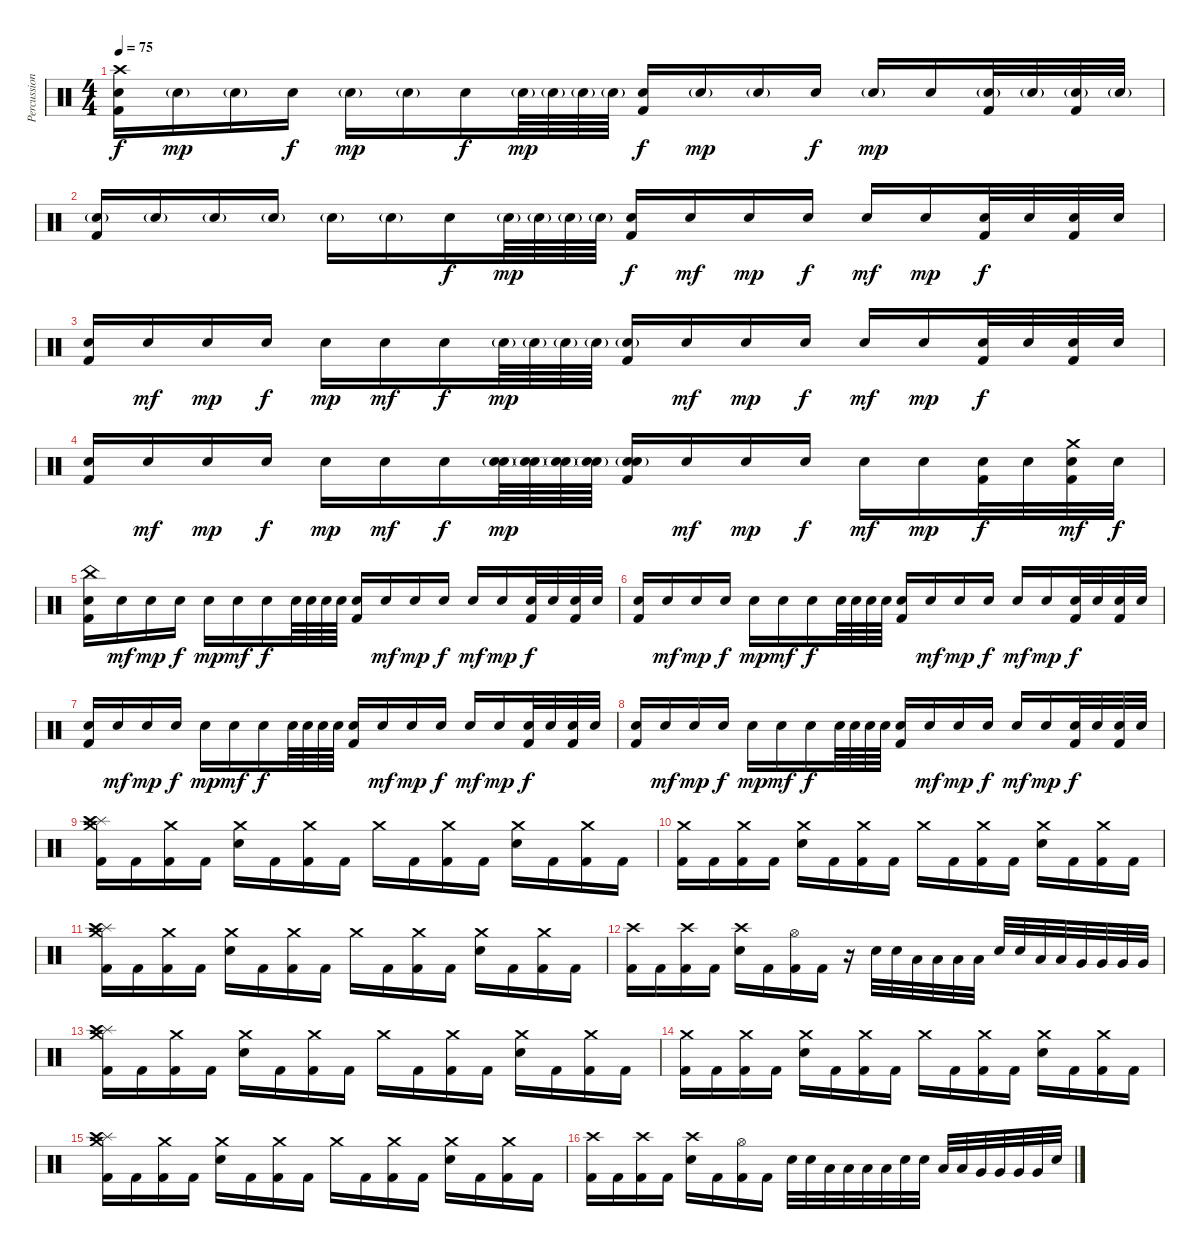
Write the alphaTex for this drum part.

\track ("Percussion" "Percussion") {instrument percussion}
\staff {score}
\articulation defaults
\ts (4 4)
\tempo 75
\clef neutral
\ks c
("Crash high (hit)" "Snare (hit) 2" "Kick (hit) 2").16{dy f} "Snare (hit) 2"{g}.16{dy mp} "Snare (hit) 2"{g}.16 "Snare (hit) 2".16{dy f} "Snare (hit) 2"{g}.16{dy mp} "Snare (hit) 2"{g}.16 "Snare (hit) 2".16{dy f} "Snare (hit) 2"{g}.64{dy mp} "Snare (hit) 2"{g}.64 "Snare (hit) 2"{g}.64 "Snare (hit) 2"{g}.64 ("Snare (hit) 2" "Kick (hit) 2").16{dy f} "Snare (hit) 2"{g}.16{dy mp} "Snare (hit) 2"{g}.16 "Snare (hit) 2".16{dy f} "Snare (hit) 2"{g}.16{dy mp} "Snare (hit) 2".16 ("Snare (hit) 2"{g} "Kick (hit) 2").32 "Snare (hit) 2"{g}.32 ("Snare (hit) 2"{g} "Kick (hit) 2").32 "Snare (hit) 2"{g}.32 |
("Snare (hit) 2"{g} "Kick (hit) 2").16 "Snare (hit) 2"{g}.16 "Snare (hit) 2"{g}.16 "Snare (hit) 2"{g}.16 "Snare (hit) 2"{g}.16 "Snare (hit) 2"{g}.16 "Snare (hit) 2".16{dy f} "Snare (hit) 2"{g}.64{dy mp} "Snare (hit) 2"{g}.64 "Snare (hit) 2"{g}.64 "Snare (hit) 2"{g}.64 ("Snare (hit) 2" "Kick (hit) 2").16{dy f} "Snare (hit) 2".16{dy mf} "Snare (hit) 2".16{dy mp} "Snare (hit) 2".16{dy f} "Snare (hit) 2".16{dy mf} "Snare (hit) 2".16{dy mp} ("Snare (hit) 2" "Kick (hit) 2").32{dy f} "Snare (hit) 2".32 ("Snare (hit) 2" "Kick (hit) 2").32 "Snare (hit) 2".32 |
("Snare (hit) 2" "Kick (hit) 2").16 "Snare (hit) 2".16{dy mf} "Snare (hit) 2".16{dy mp} "Snare (hit) 2".16{dy f} "Snare (hit) 2".16{dy mp} "Snare (hit) 2".16{dy mf} "Snare (hit) 2".16{dy f} "Snare (hit) 2"{g}.64{dy mp} "Snare (hit) 2"{g}.64 "Snare (hit) 2"{g}.64 "Snare (hit) 2"{g}.64 ("Snare (hit) 2"{g} "Kick (hit) 2").16 "Snare (hit) 2".16{dy mf} "Snare (hit) 2".16{dy mp} "Snare (hit) 2".16{dy f} "Snare (hit) 2".16{dy mf} "Snare (hit) 2".16{dy mp} ("Snare (hit) 2" "Kick (hit) 2").32{dy f} "Snare (hit) 2".32 ("Snare (hit) 2" "Kick (hit) 2").32 "Snare (hit) 2".32 |
("Snare (hit) 2" "Kick (hit) 2").16 "Snare (hit) 2".16{dy mf} "Snare (hit) 2".16{dy mp} "Snare (hit) 2".16{dy f} "Snare (hit) 2".16{dy mp} "Snare (hit) 2".16{dy mf} "Snare (hit) 2".16{dy f} ("Snare (hit) 2"{g} "Snare (hit) 2"{g}).64{dy mp} ("Snare (hit) 2"{g} "Snare (hit) 2"{g}).64 ("Snare (hit) 2"{g} "Snare (hit) 2"{g}).64 ("Snare (hit) 2"{g} "Snare (hit) 2"{g}).64 ("Snare (hit) 2"{g} "Snare (hit) 2"{g} "Kick (hit) 2").16 "Snare (hit) 2".16{dy mf} "Snare (hit) 2".16{dy mp} "Snare (hit) 2".16{dy f} "Snare (hit) 2".16{dy mf} "Snare (hit) 2".16{dy mp} ("Snare (hit) 2" "Kick (hit) 2").32{dy f} "Snare (hit) 2".32 ("Crash medium (hit)" "Snare (hit) 2" "Kick (hit) 2").32{dy mf} "Snare (hit) 2".32{dy f} |
("China (hit)" "Snare (hit) 2" "Kick (hit) 2").16 "Snare (hit) 2".16{dy mf} "Snare (hit) 2".16{dy mp} "Snare (hit) 2".16{dy f} "Snare (hit) 2".16{dy mp} "Snare (hit) 2".16{dy mf} "Snare (hit) 2".16{dy f} "Snare (hit) 2".64 "Snare (hit) 2".64 "Snare (hit) 2".64 "Snare (hit) 2".64 ("Snare (hit) 2" "Kick (hit) 2").16 "Snare (hit) 2".16{dy mf} "Snare (hit) 2".16{dy mp} "Snare (hit) 2".16{dy f} "Snare (hit) 2".16{dy mf} "Snare (hit) 2".16{dy mp} ("Snare (hit) 2" "Kick (hit) 2").32{dy f} "Snare (hit) 2".32 ("Snare (hit) 2" "Kick (hit) 2").32 "Snare (hit) 2".32 |
("Snare (hit) 2" "Kick (hit) 2").16 "Snare (hit) 2".16{dy mf} "Snare (hit) 2".16{dy mp} "Snare (hit) 2".16{dy f} "Snare (hit) 2".16{dy mp} "Snare (hit) 2".16{dy mf} "Snare (hit) 2".16{dy f} "Snare (hit) 2".64 "Snare (hit) 2".64 "Snare (hit) 2".64 "Snare (hit) 2".64 ("Snare (hit) 2" "Kick (hit) 2").16 "Snare (hit) 2".16{dy mf} "Snare (hit) 2".16{dy mp} "Snare (hit) 2".16{dy f} "Snare (hit) 2".16{dy mf} "Snare (hit) 2".16{dy mp} ("Snare (hit) 2" "Kick (hit) 2").32{dy f} "Snare (hit) 2".32 ("Snare (hit) 2" "Kick (hit) 2").32 "Snare (hit) 2".32 |
("Snare (hit) 2" "Kick (hit) 2").16 "Snare (hit) 2".16{dy mf} "Snare (hit) 2".16{dy mp} "Snare (hit) 2".16{dy f} "Snare (hit) 2".16{dy mp} "Snare (hit) 2".16{dy mf} "Snare (hit) 2".16{dy f} "Snare (hit) 2".64 "Snare (hit) 2".64 "Snare (hit) 2".64 "Snare (hit) 2".64 ("Snare (hit) 2" "Kick (hit) 2").16 "Snare (hit) 2".16{dy mf} "Snare (hit) 2".16{dy mp} "Snare (hit) 2".16{dy f} "Snare (hit) 2".16{dy mf} "Snare (hit) 2".16{dy mp} ("Snare (hit) 2" "Kick (hit) 2").32{dy f} "Snare (hit) 2".32 ("Snare (hit) 2" "Kick (hit) 2").32 "Snare (hit) 2".32 |
("Snare (hit) 2" "Kick (hit) 2").16 "Snare (hit) 2".16{dy mf} "Snare (hit) 2".16{dy mp} "Snare (hit) 2".16{dy f} "Snare (hit) 2".16{dy mp} "Snare (hit) 2".16{dy mf} "Snare (hit) 2".16{dy f} "Snare (hit) 2".64 "Snare (hit) 2".64 "Snare (hit) 2".64 "Snare (hit) 2".64 ("Snare (hit) 2" "Kick (hit) 2").16 "Snare (hit) 2".16{dy mf} "Snare (hit) 2".16{dy mp} "Snare (hit) 2".16{dy f} "Snare (hit) 2".16{dy mf} "Snare (hit) 2".16{dy mp} ("Snare (hit) 2" "Kick (hit) 2").32{dy f} "Snare (hit) 2".32 ("Snare (hit) 2" "Kick (hit) 2").32 "Snare (hit) 2".32 |
("Splash (hit)" "Crash high (hit)" "Crash medium (hit)" "Kick (hit) 2").16 "Kick (hit) 2".16 ("Crash medium (hit)" "Kick (hit) 2").16 "Kick (hit) 2".16 ("Crash medium (hit)" "Snare (hit) 2").16 "Kick (hit) 2".16 ("Crash medium (hit)" "Kick (hit) 2").16 "Kick (hit) 2".16 "Crash medium (hit)".16 "Kick (hit) 2".16 ("Crash medium (hit)" "Kick (hit) 2").16 "Kick (hit) 2".16 ("Crash medium (hit)" "Snare (hit) 2").16 "Kick (hit) 2".16 ("Crash medium (hit)" "Kick (hit) 2").16 "Kick (hit) 2".16 |
("Crash medium (hit)" "Kick (hit) 2").16 "Kick (hit) 2".16 ("Crash medium (hit)" "Kick (hit) 2").16 "Kick (hit) 2".16 ("Crash medium (hit)" "Snare (hit) 2").16 "Kick (hit) 2".16 ("Crash medium (hit)" "Kick (hit) 2").16 "Kick (hit) 2".16 "Crash medium (hit)".16 "Kick (hit) 2".16 ("Crash medium (hit)" "Kick (hit) 2").16 "Kick (hit) 2".16 ("Crash medium (hit)" "Snare (hit) 2").16 "Kick (hit) 2".16 ("Crash medium (hit)" "Kick (hit) 2").16 "Kick (hit) 2".16 |
("Splash (hit)" "Crash high (hit)" "Crash medium (hit)" "Kick (hit) 2").16 "Kick (hit) 2".16 ("Crash medium (hit)" "Kick (hit) 2").16 "Kick (hit) 2".16 ("Crash medium (hit)" "Snare (hit) 2").16 "Kick (hit) 2".16 ("Crash medium (hit)" "Kick (hit) 2").16 "Kick (hit) 2".16 "Crash medium (hit)".16 "Kick (hit) 2".16 ("Crash medium (hit)" "Kick (hit) 2").16 "Kick (hit) 2".16 ("Crash medium (hit)" "Snare (hit) 2").16 "Kick (hit) 2".16 ("Crash medium (hit)" "Kick (hit) 2").16 "Kick (hit) 2".16 |
("Crash high (hit)" "Kick (hit) 2").16 "Kick (hit) 2".16 ("Crash high (hit)" "Kick (hit) 2").16 "Kick (hit) 2".16 ("Crash high (hit)" "Snare (hit) 2").16 "Kick (hit) 2".16 ("Hi-Hat (open)" "Kick (hit) 2").16 "Kick (hit) 2".16 r.16 "Snare (hit) 2".32 "Snare (hit) 2".32 "Low Tom (hit)".32 "Low Tom (hit)".32 "Low Tom (hit)".32 "Low Tom (hit)".32 "Snare (hit) 2".32 "Snare (hit) 2".32 "Low Tom (hit)".32 "Low Tom (hit)".32 "Very Low Tom (hit)".32 "Very Low Tom (hit)".32 "Very Low Tom (hit)".32 "Very Low Tom (hit)".32 |
("Splash (hit)" "Crash high (hit)" "Crash medium (hit)" "Kick (hit) 2").16 "Kick (hit) 2".16 ("Crash medium (hit)" "Kick (hit) 2").16 "Kick (hit) 2".16 ("Crash medium (hit)" "Snare (hit) 2").16 "Kick (hit) 2".16 ("Crash medium (hit)" "Kick (hit) 2").16 "Kick (hit) 2".16 "Crash medium (hit)".16 "Kick (hit) 2".16 ("Crash medium (hit)" "Kick (hit) 2").16 "Kick (hit) 2".16 ("Crash medium (hit)" "Snare (hit) 2").16 "Kick (hit) 2".16 ("Crash medium (hit)" "Kick (hit) 2").16 "Kick (hit) 2".16 |
("Crash medium (hit)" "Kick (hit) 2").16 "Kick (hit) 2".16 ("Crash medium (hit)" "Kick (hit) 2").16 "Kick (hit) 2".16 ("Crash medium (hit)" "Snare (hit) 2").16 "Kick (hit) 2".16 ("Crash medium (hit)" "Kick (hit) 2").16 "Kick (hit) 2".16 "Crash medium (hit)".16 "Kick (hit) 2".16 ("Crash medium (hit)" "Kick (hit) 2").16 "Kick (hit) 2".16 ("Crash medium (hit)" "Snare (hit) 2").16 "Kick (hit) 2".16 ("Crash medium (hit)" "Kick (hit) 2").16 "Kick (hit) 2".16 |
("Splash (hit)" "Crash high (hit)" "Crash medium (hit)" "Kick (hit) 2").16 "Kick (hit) 2".16 ("Crash medium (hit)" "Kick (hit) 2").16 "Kick (hit) 2".16 ("Crash medium (hit)" "Snare (hit) 2").16 "Kick (hit) 2".16 ("Crash medium (hit)" "Kick (hit) 2").16 "Kick (hit) 2".16 "Crash medium (hit)".16 "Kick (hit) 2".16 ("Crash medium (hit)" "Kick (hit) 2").16 "Kick (hit) 2".16 ("Crash medium (hit)" "Snare (hit) 2").16 "Kick (hit) 2".16 ("Crash medium (hit)" "Kick (hit) 2").16 "Kick (hit) 2".16 |
("Crash high (hit)" "Kick (hit) 2").16 "Kick (hit) 2".16 ("Crash high (hit)" "Kick (hit) 2").16 "Kick (hit) 2".16 ("Crash high (hit)" "Snare (hit) 2").16 "Kick (hit) 2".16 ("Hi-Hat (open)" "Kick (hit) 2").16 "Kick (hit) 2".16 "Snare (hit) 2".32 "Snare (hit) 2".32 "Low Tom (hit)".32 "Low Tom (hit)".32 "Low Tom (hit)".32 "Low Tom (hit)".32 "Snare (hit) 2".32 "Snare (hit) 2".32 "Low Tom (hit)".32 "Low Tom (hit)".32 "Very Low Tom (hit)".32 "Very Low Tom (hit)".32 "Very Low Tom (hit)".32 "Very Low Tom (hit)".32 "Snare (hit) 2".32
